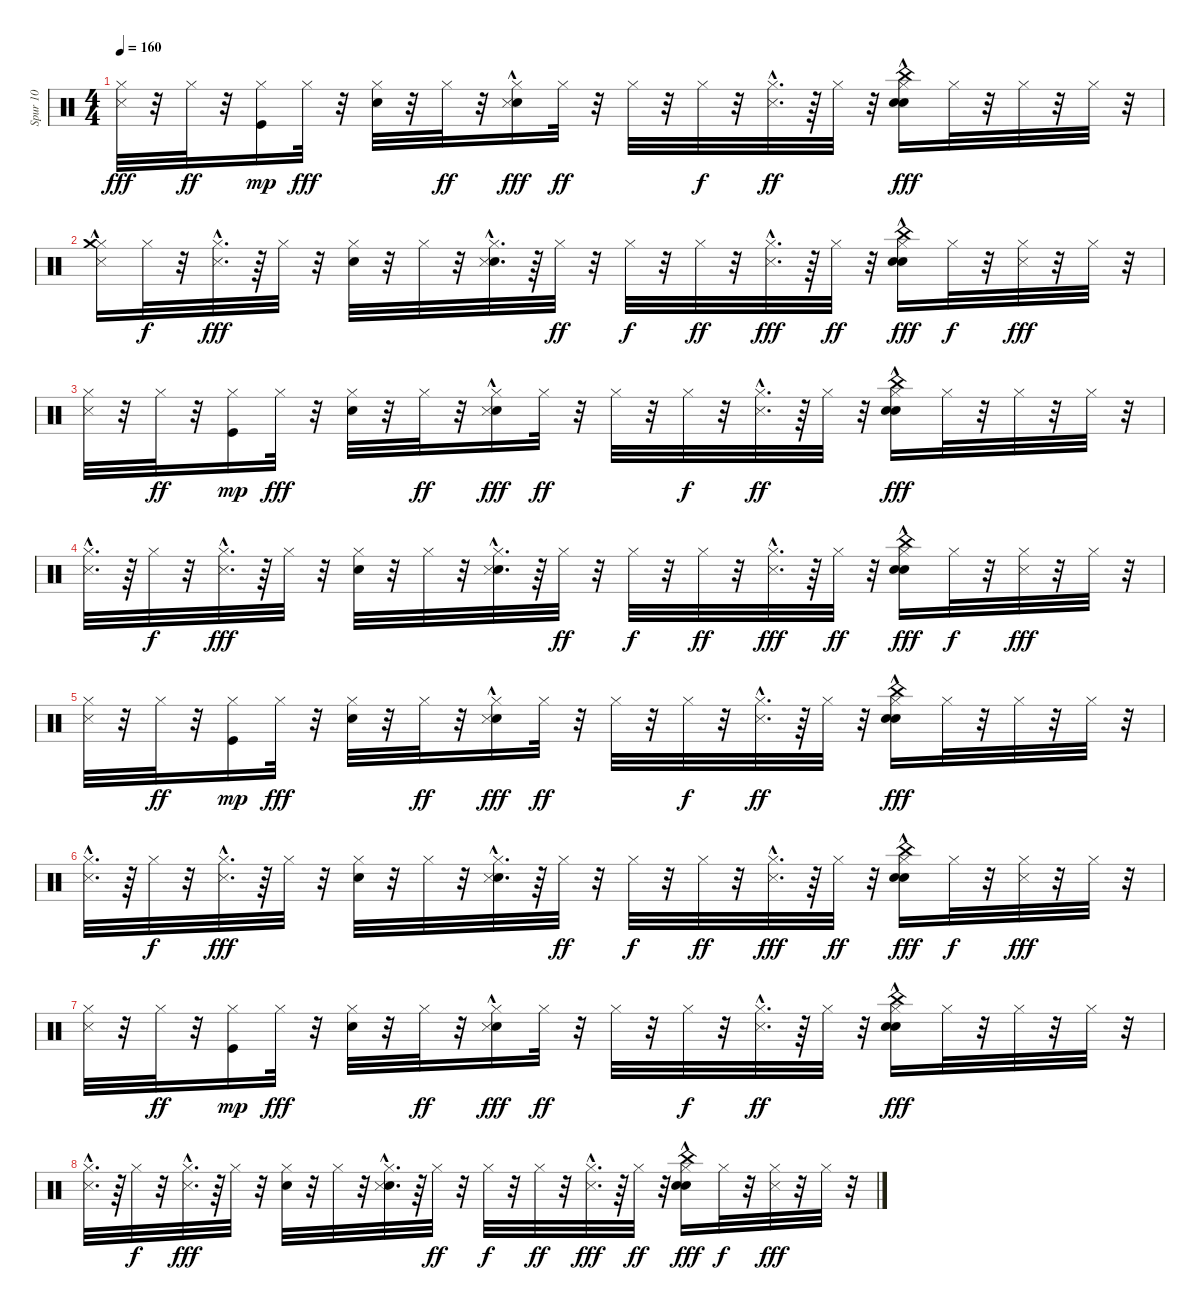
\track ("Spur 10" "Spur 10") {instrument percussion}
\staff {score}
\articulation defaults
\ts (4 4)
\tempo 160
\clef neutral
\ks c
("Hi-Hat (closed)" "Metronome (hit)").32{dy fff} r.32 "Hi-Hat (closed)".32{dy ff} r.32 ("Hi-Hat (closed)" "Kick (hit)").16{dy mp} "Hi-Hat (closed)".32{dy fff} r.32 ("Hi-Hat (closed)" "Snare (hit) 2").32 r.32 "Hi-Hat (closed)".32{dy ff} r.32 ("Hi-Hat (closed)" "Snare (hit) 2" "Metronome (hit)"{hac}).16{dy fff} "Hi-Hat (closed)".32{dy ff} r.32 "Hi-Hat (closed)".32 r.32 "Hi-Hat (closed)".32{dy f} r.32 ("Hi-Hat (closed)" "Metronome (hit)"{hac}).32{d dy ff} r.64 "Hi-Hat (closed)".32 r.32 ("Hi-Hat (closed)" "Snare (hit) 2"{hac} "China (hit)" "Hand Clap (hit)").16{dy fff} "Hi-Hat (closed)".32 r.32 "Hi-Hat (closed)".32 r.32 "Hi-Hat (closed)".32 r.32 |
("Hi-Hat (closed)" "Metronome (hit)"{hac} "Crash medium (hit)").16 "Hi-Hat (closed)".32{dy f} r.32 ("Hi-Hat (closed)" "Metronome (hit)"{hac}).32{d dy fff} r.64 "Hi-Hat (closed)".32 r.32 ("Hi-Hat (closed)" "Snare (hit) 2").32 r.32 "Hi-Hat (closed)".32 r.32 ("Hi-Hat (closed)" "Snare (hit) 2"{hac} "Metronome (hit)"{hac}).32{d} r.64 "Hi-Hat (closed)".32{dy ff} r.32 "Hi-Hat (closed)".32{dy f} r.32 "Hi-Hat (closed)".32{dy ff} r.32 ("Hi-Hat (closed)" "Metronome (hit)"{hac}).32{d dy fff} r.64 "Hi-Hat (closed)".32{dy ff} r.32 ("Hi-Hat (closed)" "Snare (hit) 2"{hac} "China (hit)" "Hand Clap (hit)").16{dy fff} "Hi-Hat (closed)".32{dy f} r.32 ("Hi-Hat (closed)" "Metronome (hit)").32{dy fff} r.32 "Hi-Hat (closed)".32 r.32 |
("Hi-Hat (closed)" "Metronome (hit)").32 r.32 "Hi-Hat (closed)".32{dy ff} r.32 ("Hi-Hat (closed)" "Kick (hit)").16{dy mp} "Hi-Hat (closed)".32{dy fff} r.32 ("Hi-Hat (closed)" "Snare (hit) 2").32 r.32 "Hi-Hat (closed)".32{dy ff} r.32 ("Hi-Hat (closed)" "Snare (hit) 2" "Metronome (hit)"{hac}).16{dy fff} "Hi-Hat (closed)".32{dy ff} r.32 "Hi-Hat (closed)".32 r.32 "Hi-Hat (closed)".32{dy f} r.32 ("Hi-Hat (closed)" "Metronome (hit)"{hac}).32{d dy ff} r.64 "Hi-Hat (closed)".32 r.32 ("Hi-Hat (closed)" "Snare (hit) 2"{hac} "China (hit)" "Hand Clap (hit)").16{dy fff} "Hi-Hat (closed)".32 r.32 "Hi-Hat (closed)".32 r.32 "Hi-Hat (closed)".32 r.32 |
("Hi-Hat (closed)" "Metronome (hit)"{hac}).32{d} r.64 "Hi-Hat (closed)".32{dy f} r.32 ("Hi-Hat (closed)" "Metronome (hit)"{hac}).32{d dy fff} r.64 "Hi-Hat (closed)".32 r.32 ("Hi-Hat (closed)" "Snare (hit) 2").32 r.32 "Hi-Hat (closed)".32 r.32 ("Hi-Hat (closed)" "Snare (hit) 2"{hac} "Metronome (hit)"{hac}).32{d} r.64 "Hi-Hat (closed)".32{dy ff} r.32 "Hi-Hat (closed)".32{dy f} r.32 "Hi-Hat (closed)".32{dy ff} r.32 ("Hi-Hat (closed)" "Metronome (hit)"{hac}).32{d dy fff} r.64 "Hi-Hat (closed)".32{dy ff} r.32 ("Hi-Hat (closed)" "Snare (hit) 2"{hac} "China (hit)" "Hand Clap (hit)").16{dy fff} "Hi-Hat (closed)".32{dy f} r.32 ("Hi-Hat (closed)" "Metronome (hit)").32{dy fff} r.32 "Hi-Hat (closed)".32 r.32 |
("Hi-Hat (closed)" "Metronome (hit)").32 r.32 "Hi-Hat (closed)".32{dy ff} r.32 ("Hi-Hat (closed)" "Kick (hit)").16{dy mp} "Hi-Hat (closed)".32{dy fff} r.32 ("Hi-Hat (closed)" "Snare (hit) 2").32 r.32 "Hi-Hat (closed)".32{dy ff} r.32 ("Hi-Hat (closed)" "Snare (hit) 2" "Metronome (hit)"{hac}).16{dy fff} "Hi-Hat (closed)".32{dy ff} r.32 "Hi-Hat (closed)".32 r.32 "Hi-Hat (closed)".32{dy f} r.32 ("Hi-Hat (closed)" "Metronome (hit)"{hac}).32{d dy ff} r.64 "Hi-Hat (closed)".32 r.32 ("Hi-Hat (closed)" "Snare (hit) 2"{hac} "China (hit)" "Hand Clap (hit)").16{dy fff} "Hi-Hat (closed)".32 r.32 "Hi-Hat (closed)".32 r.32 "Hi-Hat (closed)".32 r.32 |
("Hi-Hat (closed)" "Metronome (hit)"{hac}).32{d} r.64 "Hi-Hat (closed)".32{dy f} r.32 ("Hi-Hat (closed)" "Metronome (hit)"{hac}).32{d dy fff} r.64 "Hi-Hat (closed)".32 r.32 ("Hi-Hat (closed)" "Snare (hit) 2").32 r.32 "Hi-Hat (closed)".32 r.32 ("Hi-Hat (closed)" "Snare (hit) 2"{hac} "Metronome (hit)"{hac}).32{d} r.64 "Hi-Hat (closed)".32{dy ff} r.32 "Hi-Hat (closed)".32{dy f} r.32 "Hi-Hat (closed)".32{dy ff} r.32 ("Hi-Hat (closed)" "Metronome (hit)"{hac}).32{d dy fff} r.64 "Hi-Hat (closed)".32{dy ff} r.32 ("Hi-Hat (closed)" "Snare (hit) 2"{hac} "China (hit)" "Hand Clap (hit)").16{dy fff} "Hi-Hat (closed)".32{dy f} r.32 ("Hi-Hat (closed)" "Metronome (hit)").32{dy fff} r.32 "Hi-Hat (closed)".32 r.32 |
("Hi-Hat (closed)" "Metronome (hit)").32 r.32 "Hi-Hat (closed)".32{dy ff} r.32 ("Hi-Hat (closed)" "Kick (hit)").16{dy mp} "Hi-Hat (closed)".32{dy fff} r.32 ("Hi-Hat (closed)" "Snare (hit) 2").32 r.32 "Hi-Hat (closed)".32{dy ff} r.32 ("Hi-Hat (closed)" "Snare (hit) 2" "Metronome (hit)"{hac}).16{dy fff} "Hi-Hat (closed)".32{dy ff} r.32 "Hi-Hat (closed)".32 r.32 "Hi-Hat (closed)".32{dy f} r.32 ("Hi-Hat (closed)" "Metronome (hit)"{hac}).32{d dy ff} r.64 "Hi-Hat (closed)".32 r.32 ("Hi-Hat (closed)" "Snare (hit) 2"{hac} "China (hit)" "Hand Clap (hit)").16{dy fff} "Hi-Hat (closed)".32 r.32 "Hi-Hat (closed)".32 r.32 "Hi-Hat (closed)".32 r.32 |
("Hi-Hat (closed)" "Metronome (hit)"{hac}).32{d} r.64 "Hi-Hat (closed)".32{dy f} r.32 ("Hi-Hat (closed)" "Metronome (hit)"{hac}).32{d dy fff} r.64 "Hi-Hat (closed)".32 r.32 ("Hi-Hat (closed)" "Snare (hit) 2").32 r.32 "Hi-Hat (closed)".32 r.32 ("Hi-Hat (closed)" "Snare (hit) 2"{hac} "Metronome (hit)"{hac}).32{d} r.64 "Hi-Hat (closed)".32{dy ff} r.32 "Hi-Hat (closed)".32{dy f} r.32 "Hi-Hat (closed)".32{dy ff} r.32 ("Hi-Hat (closed)" "Metronome (hit)"{hac}).32{d dy fff} r.64 "Hi-Hat (closed)".32{dy ff} r.32 ("Hi-Hat (closed)" "Snare (hit) 2"{hac} "China (hit)" "Hand Clap (hit)").16{dy fff} "Hi-Hat (closed)".32{dy f} r.32 ("Hi-Hat (closed)" "Metronome (hit)").32{dy fff} r.32 "Hi-Hat (closed)".32 r.32
